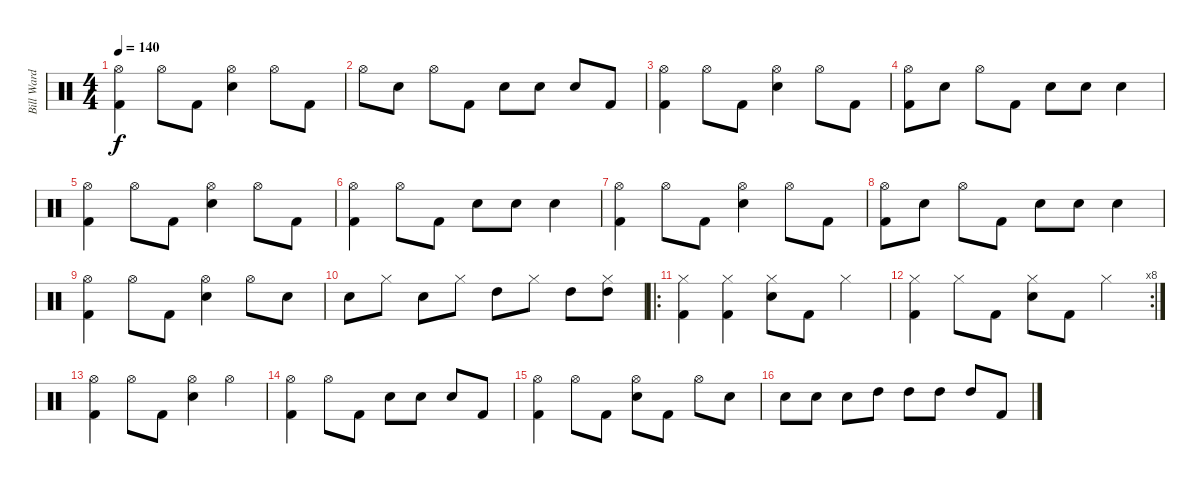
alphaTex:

\track ("Bill Ward" "Bill Ward") {instrument percussion}
\staff {score}
\articulation defaults
\ts (4 4)
\tempo 140
\clef neutral
\ks c
("Hi-Hat (open)" "Kick (hit) 2").4{dy f} "Hi-Hat (open)".8 "Kick (hit) 2".8 ("Hi-Hat (open)" "Snare (hit) 2").4 "Hi-Hat (open)".8 "Kick (hit) 2".8 |
"Hi-Hat (open)".8 "Snare (hit) 2".8 "Hi-Hat (open)".8 "Kick (hit) 2".8 "Snare (hit) 2".8 "Snare (hit) 2".8 "Snare (hit) 2".8 "Kick (hit) 2".8 |
("Hi-Hat (open)" "Kick (hit) 2").4 "Hi-Hat (open)".8 "Kick (hit) 2".8 ("Hi-Hat (open)" "Snare (hit) 2").4 "Hi-Hat (open)".8 "Kick (hit) 2".8 |
("Hi-Hat (open)" "Kick (hit) 2").8 "Snare (hit) 2".8 "Hi-Hat (open)".8 "Kick (hit) 2".8 "Snare (hit) 2".8 "Snare (hit) 2".8 "Snare (hit) 2".4 |
("Hi-Hat (open)" "Kick (hit) 2").4 "Hi-Hat (open)".8 "Kick (hit) 2".8 ("Hi-Hat (open)" "Snare (hit) 2").4 "Hi-Hat (open)".8 "Kick (hit) 2".8 |
("Hi-Hat (open)" "Kick (hit) 2").4 "Hi-Hat (open)".8 "Kick (hit) 2".8 "Snare (hit) 2".8 "Snare (hit) 2".8 "Snare (hit) 2".4 |
("Hi-Hat (open)" "Kick (hit) 2").4 "Hi-Hat (open)".8 "Kick (hit) 2".8 ("Hi-Hat (open)" "Snare (hit) 2").4 "Hi-Hat (open)".8 "Kick (hit) 2".8 |
("Hi-Hat (open)" "Kick (hit) 2").8 "Snare (hit) 2".8 "Hi-Hat (open)".8 "Kick (hit) 2".8 "Snare (hit) 2".8 "Snare (hit) 2".8 "Snare (hit) 2".4 |
("Hi-Hat (open)" "Kick (hit) 2").4 "Hi-Hat (open)".8 "Kick (hit) 2".8 ("Hi-Hat (open)" "Snare (hit) 2").4 "Hi-Hat (open)".8 "Snare (hit) 2".8 |
"Snare (hit) 2".8 "Hi-Hat (closed)".8 "Snare (hit) 2".8 "Hi-Hat (closed)".8 "High Tom (hit)".8 "Hi-Hat (closed)".8 "High Tom (hit)".8 ("Hi-Hat (closed)" "High Tom (hit)").8 |
\ro
("Hi-Hat (closed)" "Kick (hit) 2").4 ("Hi-Hat (closed)" "Kick (hit) 2").4 ("Hi-Hat (closed)" "Snare (hit) 2").8 "Kick (hit) 2".8 "Hi-Hat (closed)".4 |
\rc 8
("Hi-Hat (closed)" "Kick (hit) 2").4 "Hi-Hat (closed)".8 "Kick (hit) 2".8 ("Hi-Hat (closed)" "Snare (hit) 2").8 "Kick (hit) 2".8 "Hi-Hat (closed)".4 |
("Hi-Hat (open)" "Kick (hit) 2").4 "Hi-Hat (open)".8 "Kick (hit) 2".8 ("Hi-Hat (open)" "Snare (hit) 2").4 "Hi-Hat (open)".4 |
("Hi-Hat (open)" "Kick (hit) 2").4 "Hi-Hat (open)".8 "Kick (hit) 2".8 "Snare (hit) 2".8 "Snare (hit) 2".8 "Snare (hit) 2".8 "Kick (hit) 2".8 |
("Hi-Hat (open)" "Kick (hit) 2").4 "Hi-Hat (open)".8 "Kick (hit) 2".8 ("Hi-Hat (open)" "Snare (hit) 2").8 "Kick (hit) 2".8 "Hi-Hat (open)".8 "Snare (hit) 2".8 |
"Snare (hit) 2".8 "Snare (hit) 2".8 "Snare (hit) 2".8 "High Tom (hit)".8 "High Tom (hit)".8 "High Tom (hit)".8 "High Tom (hit)".8 "Kick (hit) 2".8
